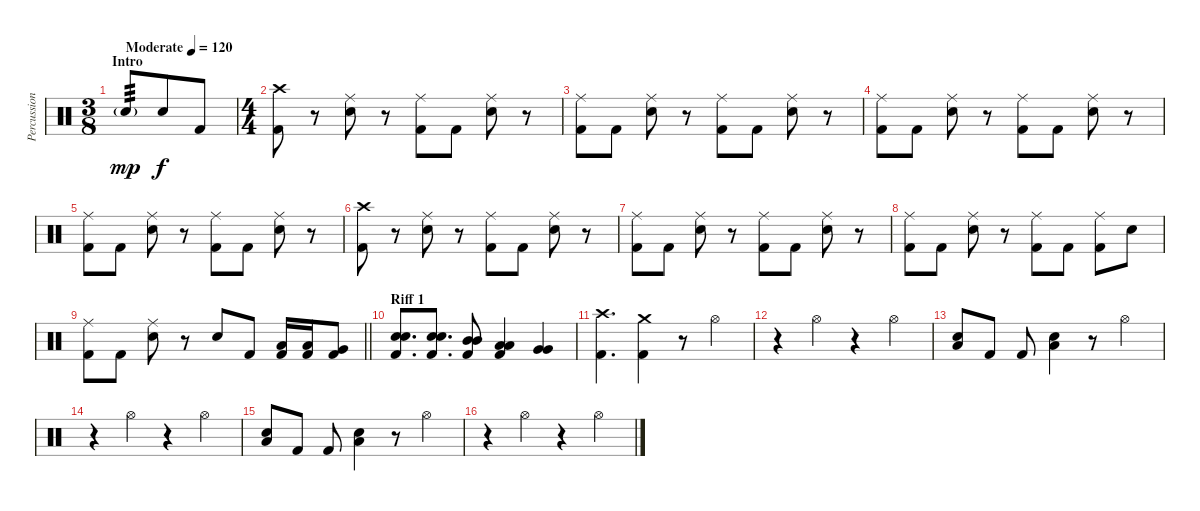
\track ("Percussion" "Percussion") {instrument percussion}
\staff {score}
\articulation defaults
\ts (3 8)
\section ("" "Intro")
\tempo (120 "Moderate")
\clef neutral
\ks c "Snare (hit) 2"{g}.8{tp 3 dy mp} "Snare (hit) 2".8{dy f} "Kick (hit) 2".8
|
\ts (4 4)
("Crash high (hit)" "Kick (hit) 2").8 r.8 ("Ride (middle)" "Snare (hit) 2").8 r.8 ("Ride (middle)" "Kick (hit) 2").8 "Kick (hit) 2".8 ("Ride (middle)" "Snare (hit) 2").8 r.8 |
("Ride (middle)" "Kick (hit) 2").8 "Kick (hit) 2".8 ("Ride (middle)" "Snare (hit) 2").8 r.8 ("Ride (middle)" "Kick (hit) 2").8 "Kick (hit) 2".8 ("Ride (middle)" "Snare (hit) 2").8 r.8 |
("Ride (middle)" "Kick (hit) 2").8 "Kick (hit) 2".8 ("Ride (middle)" "Snare (hit) 2").8 r.8 ("Ride (middle)" "Kick (hit) 2").8 "Kick (hit) 2".8 ("Ride (middle)" "Snare (hit) 2").8 r.8 |
("Ride (middle)" "Kick (hit) 2").8 "Kick (hit) 2".8 ("Ride (middle)" "Snare (hit) 2").8 r.8 ("Ride (middle)" "Kick (hit) 2").8 "Kick (hit) 2".8 ("Ride (middle)" "Snare (hit) 2").8 r.8 |
("Crash high (hit)" "Kick (hit) 2").8 r.8 ("Ride (middle)" "Snare (hit) 2").8 r.8 ("Ride (middle)" "Kick (hit) 2").8 "Kick (hit) 2".8 ("Ride (middle)" "Snare (hit) 2").8 r.8 |
("Ride (middle)" "Kick (hit) 2").8 "Kick (hit) 2".8 ("Ride (middle)" "Snare (hit) 2").8 r.8 ("Ride (middle)" "Kick (hit) 2").8 "Kick (hit) 2".8 ("Ride (middle)" "Snare (hit) 2").8 r.8 |
("Ride (middle)" "Kick (hit) 2").8 "Kick (hit) 2".8 ("Ride (middle)" "Snare (hit) 2").8 r.8 ("Ride (middle)" "Kick (hit) 2").8 "Kick (hit) 2".8 ("Ride (middle)" "Kick (hit) 2").8 "Snare (hit) 2".8 |
\barLineRight lightlight
("Ride (middle)" "Kick (hit) 2").8 "Kick (hit) 2".8 ("Ride (middle)" "Snare (hit) 2").8 r.8 "Snare (hit) 2".8 "Kick (hit) 2".8 ("Low Tom (hit)" "Kick (hit) 2").16 ("Low Tom (hit)" "Kick (hit) 2").16 ("Very Low Tom (hit)" "Kick (hit) 2").8 |
\section ("" "Riff 1")
("Snare (hit) 2" "Snare (hit) 2" "Kick (hit) 2").8{d} ("Snare (hit) 2" "Snare (hit) 2" "Kick (hit) 2").8{d} ("Mid Tom (hit)" "Mid Tom (hit)" "Kick (hit) 2").8 ("Low Tom (hit)" "Low Tom (hit)" "Kick (hit) 2").4 ("Very Low Tom (hit)" "Very Low Tom (hit)").4 |
("Crash high (hit)" "Kick (hit) 2").4{d} ("Crash medium (hit)" "Kick (hit) 2").4 r.8 "Hi-Hat (open)".4 |
r.4 "Hi-Hat (open)".4 r.4 "Hi-Hat (open)".4 |
("Snare (hit) 2" "Low Tom (hit)").8 "Kick (hit) 2".8 "Kick (hit) 2".8 ("Snare (hit) 2" "Low Tom (hit)").4 r.8 "Hi-Hat (open)".4 |
r.4 "Hi-Hat (open)".4 r.4 "Hi-Hat (open)".4 |
("Snare (hit) 2" "Low Tom (hit)").8 "Kick (hit) 2".8 "Kick (hit) 2".8 ("Snare (hit) 2" "Low Tom (hit)").4 r.8 "Hi-Hat (open)".4 |
r.4 "Hi-Hat (open)".4 r.4 "Hi-Hat (open)".4
